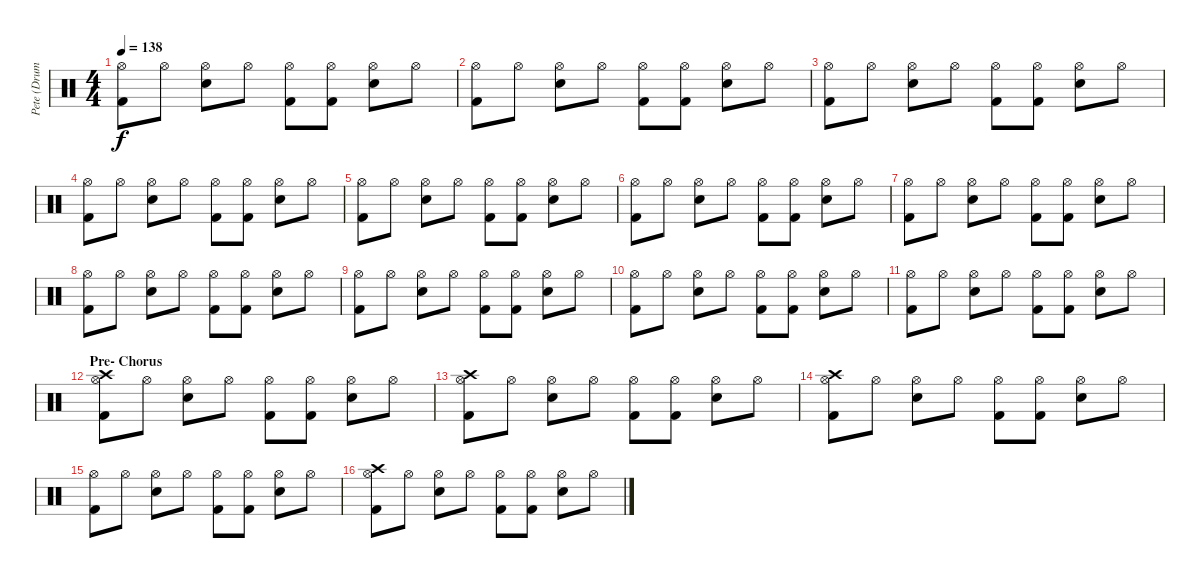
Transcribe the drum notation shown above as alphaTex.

\track ("Pete (Drums)" "Pete (Drum") {instrument percussion}
\staff {score}
\articulation defaults
\ts (4 4)
\tempo 138
\clef neutral
\ks c
("Hi-Hat (open)" "Kick (hit) 2").8{dy f} "Hi-Hat (open)".8 ("Hi-Hat (open)" "Snare (hit) 2").8 "Hi-Hat (open)".8 ("Hi-Hat (open)" "Kick (hit) 2").8 ("Hi-Hat (open)" "Kick (hit) 2").8 ("Hi-Hat (open)" "Snare (hit) 2").8 "Hi-Hat (open)".8 |
("Hi-Hat (open)" "Kick (hit) 2").8 "Hi-Hat (open)".8 ("Hi-Hat (open)" "Snare (hit) 2").8 "Hi-Hat (open)".8 ("Hi-Hat (open)" "Kick (hit) 2").8 ("Hi-Hat (open)" "Kick (hit) 2").8 ("Hi-Hat (open)" "Snare (hit) 2").8 "Hi-Hat (open)".8 |
("Hi-Hat (open)" "Kick (hit) 2").8 "Hi-Hat (open)".8 ("Hi-Hat (open)" "Snare (hit) 2").8 "Hi-Hat (open)".8 ("Hi-Hat (open)" "Kick (hit) 2").8 ("Hi-Hat (open)" "Kick (hit) 2").8 ("Hi-Hat (open)" "Snare (hit) 2").8 "Hi-Hat (open)".8 |
("Hi-Hat (open)" "Kick (hit) 2").8 "Hi-Hat (open)".8 ("Hi-Hat (open)" "Snare (hit) 2").8 "Hi-Hat (open)".8 ("Hi-Hat (open)" "Kick (hit) 2").8 ("Hi-Hat (open)" "Kick (hit) 2").8 ("Hi-Hat (open)" "Snare (hit) 2").8 "Hi-Hat (open)".8 |
("Hi-Hat (open)" "Kick (hit) 2").8 "Hi-Hat (open)".8 ("Hi-Hat (open)" "Snare (hit) 2").8 "Hi-Hat (open)".8 ("Hi-Hat (open)" "Kick (hit) 2").8 ("Hi-Hat (open)" "Kick (hit) 2").8 ("Hi-Hat (open)" "Snare (hit) 2").8 "Hi-Hat (open)".8 |
("Hi-Hat (open)" "Kick (hit) 2").8 "Hi-Hat (open)".8 ("Hi-Hat (open)" "Snare (hit) 2").8 "Hi-Hat (open)".8 ("Hi-Hat (open)" "Kick (hit) 2").8 ("Hi-Hat (open)" "Kick (hit) 2").8 ("Hi-Hat (open)" "Snare (hit) 2").8 "Hi-Hat (open)".8 |
("Hi-Hat (open)" "Kick (hit) 2").8 "Hi-Hat (open)".8 ("Hi-Hat (open)" "Snare (hit) 2").8 "Hi-Hat (open)".8 ("Hi-Hat (open)" "Kick (hit) 2").8 ("Hi-Hat (open)" "Kick (hit) 2").8 ("Hi-Hat (open)" "Snare (hit) 2").8 "Hi-Hat (open)".8 |
("Hi-Hat (open)" "Kick (hit) 2").8 "Hi-Hat (open)".8 ("Hi-Hat (open)" "Snare (hit) 2").8 "Hi-Hat (open)".8 ("Hi-Hat (open)" "Kick (hit) 2").8 ("Hi-Hat (open)" "Kick (hit) 2").8 ("Hi-Hat (open)" "Snare (hit) 2").8 "Hi-Hat (open)".8 |
("Hi-Hat (open)" "Kick (hit) 2").8 "Hi-Hat (open)".8 ("Hi-Hat (open)" "Snare (hit) 2").8 "Hi-Hat (open)".8 ("Hi-Hat (open)" "Kick (hit) 2").8 ("Hi-Hat (open)" "Kick (hit) 2").8 ("Hi-Hat (open)" "Snare (hit) 2").8 "Hi-Hat (open)".8 |
("Hi-Hat (open)" "Kick (hit) 2").8 "Hi-Hat (open)".8 ("Hi-Hat (open)" "Snare (hit) 2").8 "Hi-Hat (open)".8 ("Hi-Hat (open)" "Kick (hit) 2").8 ("Hi-Hat (open)" "Kick (hit) 2").8 ("Hi-Hat (open)" "Snare (hit) 2").8 "Hi-Hat (open)".8 |
("Hi-Hat (open)" "Kick (hit) 2").8 "Hi-Hat (open)".8 ("Hi-Hat (open)" "Snare (hit) 2").8 "Hi-Hat (open)".8 ("Hi-Hat (open)" "Kick (hit) 2").8 ("Hi-Hat (open)" "Kick (hit) 2").8 ("Hi-Hat (open)" "Snare (hit) 2").8 "Hi-Hat (open)".8 |
\section ("" "Pre- Chorus")
("Hi-Hat (open)" "Crash high (hit)" "Kick (hit) 2").8 "Hi-Hat (open)".8 ("Hi-Hat (open)" "Snare (hit) 2").8 "Hi-Hat (open)".8 ("Hi-Hat (open)" "Kick (hit) 2").8 ("Hi-Hat (open)" "Kick (hit) 2").8 ("Hi-Hat (open)" "Snare (hit) 2").8 "Hi-Hat (open)".8 |
("Hi-Hat (open)" "Crash high (hit)" "Kick (hit) 2").8 "Hi-Hat (open)".8 ("Hi-Hat (open)" "Snare (hit) 2").8 "Hi-Hat (open)".8 ("Hi-Hat (open)" "Kick (hit) 2").8 ("Hi-Hat (open)" "Kick (hit) 2").8 ("Hi-Hat (open)" "Snare (hit) 2").8 "Hi-Hat (open)".8 |
("Hi-Hat (open)" "Crash high (hit)" "Kick (hit) 2").8 "Hi-Hat (open)".8 ("Hi-Hat (open)" "Snare (hit) 2").8 "Hi-Hat (open)".8 ("Hi-Hat (open)" "Kick (hit) 2").8 ("Hi-Hat (open)" "Kick (hit) 2").8 ("Hi-Hat (open)" "Snare (hit) 2").8 "Hi-Hat (open)".8 |
("Hi-Hat (open)" "Kick (hit) 2").8 "Hi-Hat (open)".8 ("Hi-Hat (open)" "Snare (hit) 2").8 "Hi-Hat (open)".8 ("Hi-Hat (open)" "Kick (hit) 2").8 ("Hi-Hat (open)" "Kick (hit) 2").8 ("Hi-Hat (open)" "Snare (hit) 2").8 "Hi-Hat (open)".8 |
("Hi-Hat (open)" "Crash high (hit)" "Kick (hit) 2").8 "Hi-Hat (open)".8 ("Hi-Hat (open)" "Snare (hit) 2").8 "Hi-Hat (open)".8 ("Hi-Hat (open)" "Kick (hit) 2").8 ("Hi-Hat (open)" "Kick (hit) 2").8 ("Hi-Hat (open)" "Snare (hit) 2").8 "Hi-Hat (open)".8
